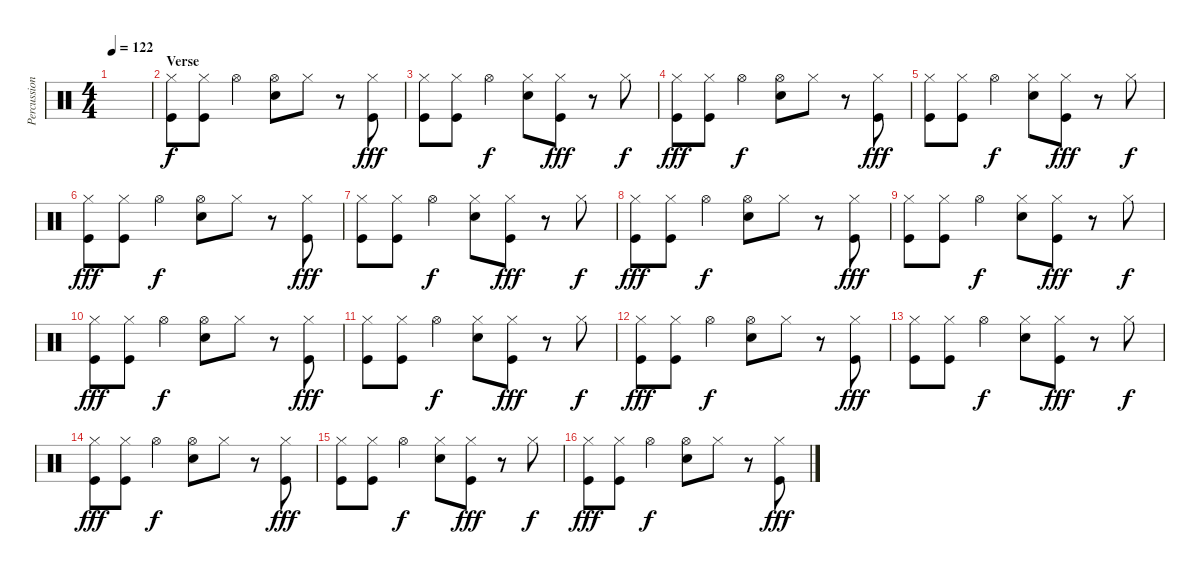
\track ("Percussion" "Percussion") {instrument percussion}
\staff {score}
\articulation defaults
\ts (4 4)
\tempo 122
\clef neutral
\ks c
|
\section ("" "Verse")
("Hi-Hat (closed)" "Kick (hit)").8{volume 9} ("Hi-Hat (closed)" "Kick (hit)").8 "Hi-Hat (open)".4{dy f} ("Hi-Hat (open)" "Snare (hit) 2").8 "Hi-Hat (closed)".8 r.8 ("Hi-Hat (closed)" "Kick (hit)").8{dy fff} |
("Hi-Hat (closed)" "Kick (hit)").8 ("Hi-Hat (closed)" "Kick (hit)").8 "Hi-Hat (open)".4{dy f} ("Hi-Hat (closed)" "Snare (hit) 2").8 ("Hi-Hat (closed)" "Kick (hit)").8{dy fff} r.8 "Hi-Hat (closed)".8{dy f} |
("Hi-Hat (closed)" "Kick (hit)").8{dy fff} ("Hi-Hat (closed)" "Kick (hit)").8 "Hi-Hat (open)".4{dy f} ("Hi-Hat (open)" "Snare (hit) 2").8 "Hi-Hat (closed)".8 r.8 ("Hi-Hat (closed)" "Kick (hit)").8{dy fff} |
("Hi-Hat (closed)" "Kick (hit)").8 ("Hi-Hat (closed)" "Kick (hit)").8 "Hi-Hat (open)".4{dy f} ("Hi-Hat (closed)" "Snare (hit) 2").8 ("Hi-Hat (closed)" "Kick (hit)").8{dy fff} r.8 "Hi-Hat (closed)".8{dy f} |
("Hi-Hat (closed)" "Kick (hit)").8{dy fff} ("Hi-Hat (closed)" "Kick (hit)").8 "Hi-Hat (open)".4{dy f} ("Hi-Hat (open)" "Snare (hit) 2").8 "Hi-Hat (closed)".8 r.8 ("Hi-Hat (closed)" "Kick (hit)").8{dy fff} |
("Hi-Hat (closed)" "Kick (hit)").8 ("Hi-Hat (closed)" "Kick (hit)").8 "Hi-Hat (open)".4{dy f} ("Hi-Hat (closed)" "Snare (hit) 2").8 ("Hi-Hat (closed)" "Kick (hit)").8{dy fff} r.8 "Hi-Hat (closed)".8{dy f} |
("Hi-Hat (closed)" "Kick (hit)").8{dy fff} ("Hi-Hat (closed)" "Kick (hit)").8 "Hi-Hat (open)".4{dy f} ("Hi-Hat (open)" "Snare (hit) 2").8 "Hi-Hat (closed)".8 r.8 ("Hi-Hat (closed)" "Kick (hit)").8{dy fff} |
("Hi-Hat (closed)" "Kick (hit)").8 ("Hi-Hat (closed)" "Kick (hit)").8 "Hi-Hat (open)".4{dy f} ("Hi-Hat (closed)" "Snare (hit) 2").8 ("Hi-Hat (closed)" "Kick (hit)").8{dy fff} r.8 "Hi-Hat (closed)".8{dy f} |
("Hi-Hat (closed)" "Kick (hit)").8{dy fff} ("Hi-Hat (closed)" "Kick (hit)").8 "Hi-Hat (open)".4{dy f} ("Hi-Hat (open)" "Snare (hit) 2").8 "Hi-Hat (closed)".8 r.8 ("Hi-Hat (closed)" "Kick (hit)").8{dy fff} |
("Hi-Hat (closed)" "Kick (hit)").8 ("Hi-Hat (closed)" "Kick (hit)").8 "Hi-Hat (open)".4{dy f} ("Hi-Hat (closed)" "Snare (hit) 2").8 ("Hi-Hat (closed)" "Kick (hit)").8{dy fff} r.8 "Hi-Hat (closed)".8{dy f} |
("Hi-Hat (closed)" "Kick (hit)").8{dy fff} ("Hi-Hat (closed)" "Kick (hit)").8 "Hi-Hat (open)".4{dy f} ("Hi-Hat (open)" "Snare (hit) 2").8 "Hi-Hat (closed)".8 r.8 ("Hi-Hat (closed)" "Kick (hit)").8{dy fff} |
("Hi-Hat (closed)" "Kick (hit)").8 ("Hi-Hat (closed)" "Kick (hit)").8 "Hi-Hat (open)".4{dy f} ("Hi-Hat (closed)" "Snare (hit) 2").8 ("Hi-Hat (closed)" "Kick (hit)").8{dy fff} r.8 "Hi-Hat (closed)".8{dy f} |
("Hi-Hat (closed)" "Kick (hit)").8{dy fff} ("Hi-Hat (closed)" "Kick (hit)").8 "Hi-Hat (open)".4{dy f} ("Hi-Hat (open)" "Snare (hit) 2").8 "Hi-Hat (closed)".8 r.8 ("Hi-Hat (closed)" "Kick (hit)").8{dy fff} |
("Hi-Hat (closed)" "Kick (hit)").8 ("Hi-Hat (closed)" "Kick (hit)").8 "Hi-Hat (open)".4{dy f} ("Hi-Hat (closed)" "Snare (hit) 2").8 ("Hi-Hat (closed)" "Kick (hit)").8{dy fff} r.8 "Hi-Hat (closed)".8{dy f} |
("Hi-Hat (closed)" "Kick (hit)").8{dy fff} ("Hi-Hat (closed)" "Kick (hit)").8 "Hi-Hat (open)".4{dy f} ("Hi-Hat (open)" "Snare (hit) 2").8 "Hi-Hat (closed)".8 r.8 ("Hi-Hat (closed)" "Kick (hit)").8{dy fff}
